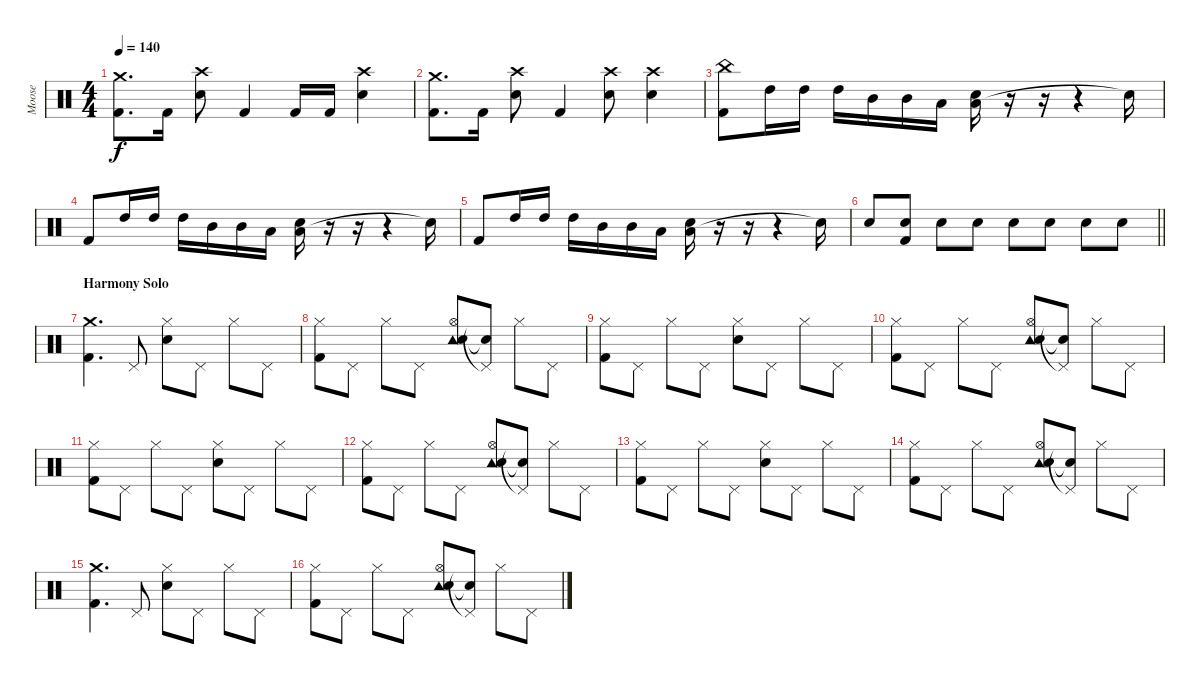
\track ("Moose" "Moose") {instrument percussion}
\staff {score}
\articulation defaults
\ts (4 4)
\tempo 140
\clef neutral
\ks c
("Crash medium (hit)" "Kick (hit) 2").8{d dy f} "Kick (hit) 2".16 ("Crash high (hit)" "Snare (hit) 2").8 "Kick (hit) 2".4 "Kick (hit) 2".16 "Kick (hit) 2".16 ("Crash high (hit)" "Snare (hit) 2").4 |
("Crash medium (hit)" "Kick (hit) 2").8{d} "Kick (hit) 2".16 ("Crash high (hit)" "Snare (hit) 2").8 "Kick (hit) 2".4 ("Crash high (hit)" "Snare (hit) 2").8 ("Crash high (hit)" "Snare (hit) 2").4 |
("China (hit)" "Kick (hit) 2").8 "High Tom (hit)".16 "High Tom (hit)".16 "High Tom (hit)".16 "Mid Tom (hit)".16 "Mid Tom (hit)".16 "Low Tom (hit)".16 ("Low Tom (hit)" "Snare (hit) 2").16 r.16 r.16 r.4 "Snare (hit)"{t}.16 |
"Kick (hit) 2".8 "High Tom (hit)".16 "High Tom (hit)".16 "High Tom (hit)".16 "Mid Tom (hit)".16 "Mid Tom (hit)".16 "Low Tom (hit)".16 ("Low Tom (hit)" "Snare (hit) 2").16 r.16 r.16 r.4 "Snare (hit)"{t}.16 |
"Kick (hit) 2".8 "High Tom (hit)".16 "High Tom (hit)".16 "High Tom (hit)".16 "Mid Tom (hit)".16 "Mid Tom (hit)".16 "Low Tom (hit)".16 ("Low Tom (hit)" "Snare (hit) 2").16 r.16 r.16 r.4 "Snare (hit)"{t}.16 |
\barLineRight lightlight "Snare (hit) 2".8
("Snare (hit) 2" "Kick (hit) 2").8{volume 4} "Snare (hit) 2".8{volume 14} "Snare (hit) 2".8 "Snare (hit) 2".8 "Snare (hit) 2".8 "Snare (hit) 2".8 "Snare (hit) 2".8 |
\section ("" "Harmony Solo")
("Crash medium (hit)" "Kick (hit) 2").4{d} "Pedal Hi-Hat (hit)".8 ("Hi-Hat (closed)" "Snare (hit) 2").8 "Pedal Hi-Hat (hit)".8 "Hi-Hat (closed)".8 "Pedal Hi-Hat (hit)".8 |
("Hi-Hat (closed)" "Kick (hit) 2").8 "Pedal Hi-Hat (hit)".8 "Hi-Hat (closed)".8 "Pedal Hi-Hat (hit)".8 ("Hi-Hat (open)" "Tambourine (hit)" "Snare (hit) 2").8 ("Pedal Hi-Hat (hit)"{t} "Snare (hit)"{t}).8 "Hi-Hat (closed)".8 "Pedal Hi-Hat (hit)".8 |
("Hi-Hat (closed)" "Kick (hit) 2").8 "Pedal Hi-Hat (hit)".8 "Hi-Hat (closed)".8 "Pedal Hi-Hat (hit)".8 ("Hi-Hat (closed)" "Snare (hit) 2").8 "Pedal Hi-Hat (hit)".8 "Hi-Hat (closed)".8 "Pedal Hi-Hat (hit)".8 |
("Hi-Hat (closed)" "Kick (hit) 2").8 "Pedal Hi-Hat (hit)".8 "Hi-Hat (closed)".8 "Pedal Hi-Hat (hit)".8 ("Hi-Hat (open)" "Tambourine (hit)" "Snare (hit) 2").8 ("Pedal Hi-Hat (hit)"{t} "Snare (hit)"{t}).8 "Hi-Hat (closed)".8 "Pedal Hi-Hat (hit)".8 |
("Hi-Hat (closed)" "Kick (hit) 2").8 "Pedal Hi-Hat (hit)".8 "Hi-Hat (closed)".8 "Pedal Hi-Hat (hit)".8 ("Hi-Hat (closed)" "Snare (hit) 2").8 "Pedal Hi-Hat (hit)".8 "Hi-Hat (closed)".8 "Pedal Hi-Hat (hit)".8 |
("Hi-Hat (closed)" "Kick (hit) 2").8 "Pedal Hi-Hat (hit)".8 "Hi-Hat (closed)".8 "Pedal Hi-Hat (hit)".8 ("Hi-Hat (open)" "Tambourine (hit)" "Snare (hit) 2").8 ("Pedal Hi-Hat (hit)"{t} "Snare (hit)"{t}).8 "Hi-Hat (closed)".8 "Pedal Hi-Hat (hit)".8 |
("Hi-Hat (closed)" "Kick (hit) 2").8 "Pedal Hi-Hat (hit)".8 "Hi-Hat (closed)".8 "Pedal Hi-Hat (hit)".8 ("Hi-Hat (closed)" "Snare (hit) 2").8 "Pedal Hi-Hat (hit)".8 "Hi-Hat (closed)".8 "Pedal Hi-Hat (hit)".8 |
("Hi-Hat (closed)" "Kick (hit) 2").8 "Pedal Hi-Hat (hit)".8 "Hi-Hat (closed)".8 "Pedal Hi-Hat (hit)".8 ("Hi-Hat (open)" "Tambourine (hit)" "Snare (hit) 2").8 ("Pedal Hi-Hat (hit)"{t} "Snare (hit)"{t}).8 "Hi-Hat (closed)".8 "Pedal Hi-Hat (hit)".8 |
("Crash medium (hit)" "Kick (hit) 2").4{d} "Pedal Hi-Hat (hit)".8 ("Hi-Hat (closed)" "Snare (hit) 2").8 "Pedal Hi-Hat (hit)".8 "Hi-Hat (closed)".8 "Pedal Hi-Hat (hit)".8 |
("Hi-Hat (closed)" "Kick (hit) 2").8 "Pedal Hi-Hat (hit)".8 "Hi-Hat (closed)".8 "Pedal Hi-Hat (hit)".8 ("Hi-Hat (open)" "Tambourine (hit)" "Snare (hit) 2").8 ("Pedal Hi-Hat (hit)"{t} "Snare (hit)"{t}).8 "Hi-Hat (closed)".8 "Pedal Hi-Hat (hit)".8
